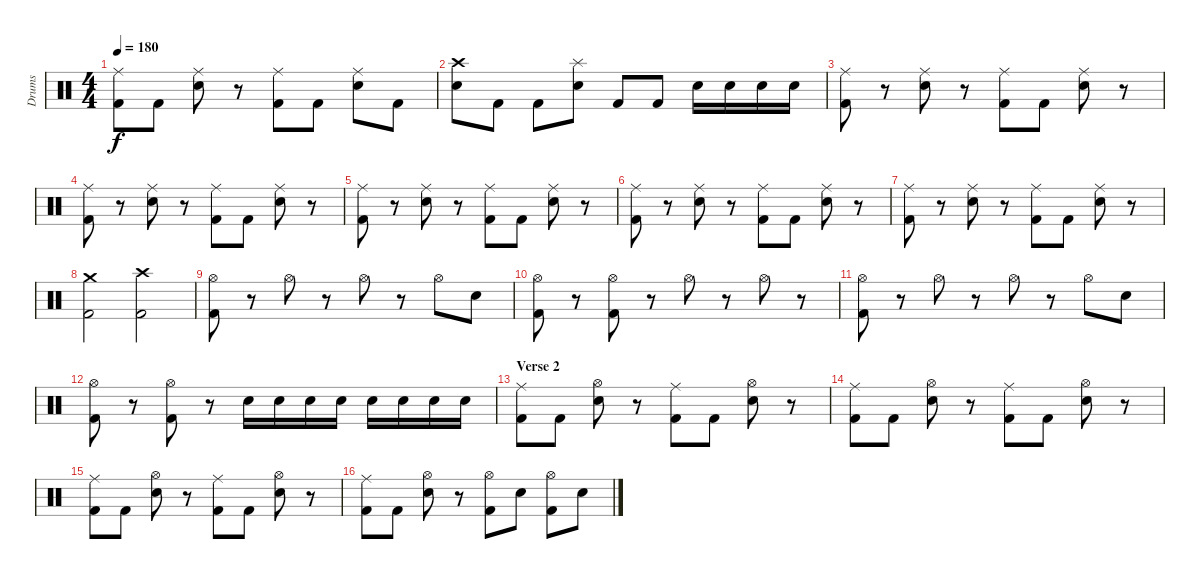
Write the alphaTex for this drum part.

\track ("Drums" "Drums") {instrument percussion}
\staff {score}
\articulation defaults
\ts (4 4)
\tempo 180
\clef neutral
\ks c
("Ride (middle)" "Kick (hit) 2").8{dy f} "Kick (hit) 2".8 ("Ride (middle)" "Snare (hit) 2").8 r.8 ("Ride (middle)" "Kick (hit) 2").8 "Kick (hit) 2".8 ("Ride (middle)" "Snare (hit) 2").8 "Kick (hit) 2".8 |
("Crash high (hit)" "Snare (hit) 2").8 "Kick (hit) 2".8 "Kick (hit) 2".8 ("Splash (hit)" "Snare (hit) 2").8 "Kick (hit) 2".8 "Kick (hit) 2".8 "Snare (hit) 2".16 "Snare (hit) 2".16 "Snare (hit) 2".16 "Snare (hit) 2".16 |
("Ride (middle)" "Kick (hit) 2").8 r.8 ("Ride (middle)" "Snare (hit) 2").8 r.8 ("Ride (middle)" "Kick (hit) 2").8 "Kick (hit) 2".8 ("Ride (middle)" "Snare (hit) 2").8 r.8 |
("Ride (middle)" "Kick (hit) 2").8 r.8 ("Ride (middle)" "Snare (hit) 2").8 r.8 ("Ride (middle)" "Kick (hit) 2").8 "Kick (hit) 2".8 ("Ride (middle)" "Snare (hit) 2").8 r.8 |
("Ride (middle)" "Kick (hit) 2").8 r.8 ("Ride (middle)" "Snare (hit) 2").8 r.8 ("Ride (middle)" "Kick (hit) 2").8 "Kick (hit) 2".8 ("Ride (middle)" "Snare (hit) 2").8 r.8 |
("Ride (middle)" "Kick (hit) 2").8 r.8 ("Ride (middle)" "Snare (hit) 2").8 r.8 ("Ride (middle)" "Kick (hit) 2").8 "Kick (hit) 2".8 ("Ride (middle)" "Snare (hit) 2").8 r.8 |
("Ride (middle)" "Kick (hit) 2").8 r.8 ("Ride (middle)" "Snare (hit) 2").8 r.8 ("Ride (middle)" "Kick (hit) 2").8 "Kick (hit) 2".8 ("Ride (middle)" "Snare (hit) 2").8 r.8 |
("Crash medium (hit)" "Kick (hit) 2").2 ("Crash high (hit)" "Kick (hit) 2").2 |
("Hi-Hat (open)" "Kick (hit) 2").8 r.8 "Hi-Hat (open)".8 r.8 "Hi-Hat (open)".8 r.8 "Hi-Hat (open)".8 "Snare (hit) 2".8 |
("Hi-Hat (open)" "Kick (hit) 2").8 r.8 ("Hi-Hat (open)" "Kick (hit) 2").8 r.8 "Hi-Hat (open)".8 r.8 "Hi-Hat (open)".8 r.8 |
("Hi-Hat (open)" "Kick (hit) 2").8 r.8 "Hi-Hat (open)".8 r.8 "Hi-Hat (open)".8 r.8 "Hi-Hat (open)".8 "Snare (hit) 2".8 |
("Hi-Hat (open)" "Kick (hit) 2").8 r.8 ("Hi-Hat (open)" "Kick (hit) 2").8 r.8 "Snare (hit) 2".16 "Snare (hit) 2".16 "Snare (hit) 2".16 "Snare (hit) 2".16 "Snare (hit) 2".16 "Snare (hit) 2".16 "Snare (hit) 2".16 "Snare (hit) 2".16 |
\section ("" "Verse 2")
("Ride (middle)" "Kick (hit) 2").8 "Kick (hit) 2".8 ("Hi-Hat (open)" "Snare (hit) 2").8 r.8 ("Ride (middle)" "Kick (hit) 2").8 "Kick (hit) 2".8 ("Hi-Hat (open)" "Snare (hit) 2").8 r.8 |
("Ride (middle)" "Kick (hit) 2").8 "Kick (hit) 2".8 ("Hi-Hat (open)" "Snare (hit) 2").8 r.8 ("Ride (middle)" "Kick (hit) 2").8 "Kick (hit) 2".8 ("Hi-Hat (open)" "Snare (hit) 2").8 r.8 |
("Ride (middle)" "Kick (hit) 2").8 "Kick (hit) 2".8 ("Hi-Hat (open)" "Snare (hit) 2").8 r.8 ("Ride (middle)" "Kick (hit) 2").8 "Kick (hit) 2".8 ("Hi-Hat (open)" "Snare (hit) 2").8 r.8 |
("Ride (middle)" "Kick (hit) 2").8 "Kick (hit) 2".8 ("Hi-Hat (open)" "Snare (hit) 2").8 r.8 ("Hi-Hat (open)" "Kick (hit) 2").8 "Snare (hit) 2".8 ("Hi-Hat (open)" "Kick (hit) 2").8 "Snare (hit) 2".8
